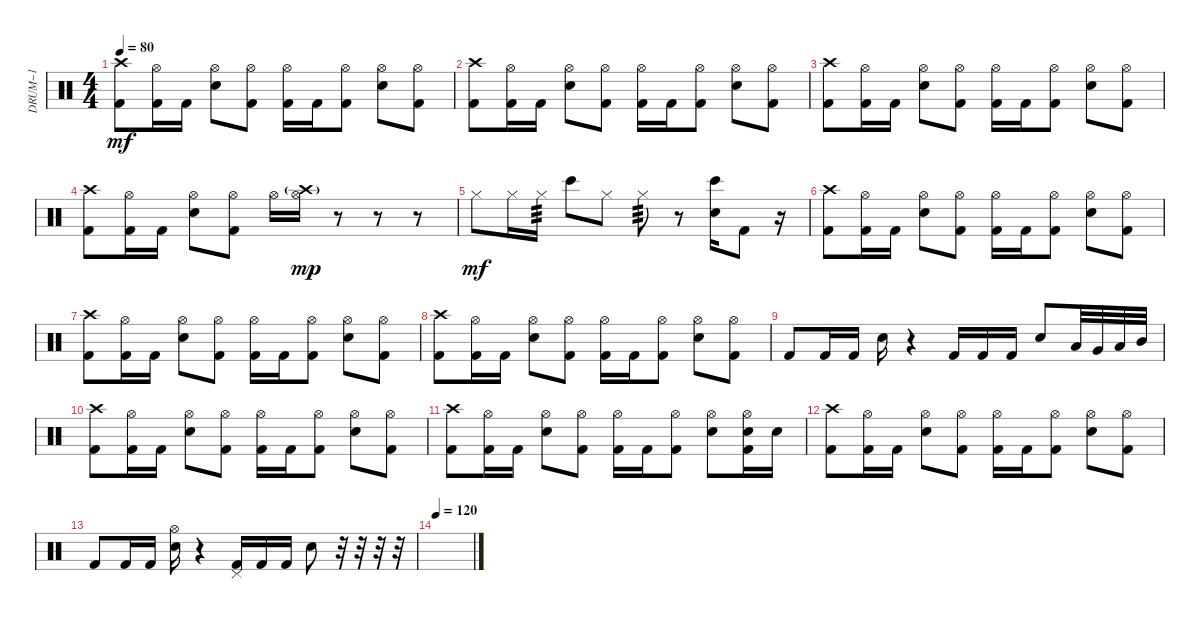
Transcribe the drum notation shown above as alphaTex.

\track ("DRUM~1" "DRUM~1") {instrument percussion}
\staff {score}
\articulation defaults
\ts (4 4)
\tempo 80
\clef neutral
\ks c
("Crash high (hit)" "Kick (hit) 2").8{dy mf} ("Hi-Hat (open)" "Kick (hit) 2").16 "Kick (hit) 2".16 ("Hi-Hat (open)" "Snare (hit) 2").8 ("Hi-Hat (open)" "Kick (hit) 2").8 ("Hi-Hat (open)" "Kick (hit) 2").16 "Kick (hit) 2".16 ("Hi-Hat (open)" "Kick (hit) 2").8 ("Hi-Hat (open)" "Snare (hit) 2").8 ("Hi-Hat (open)" "Kick (hit) 2").8 |
("Crash high (hit)" "Kick (hit) 2").8 ("Hi-Hat (open)" "Kick (hit) 2").16 "Kick (hit) 2".16 ("Hi-Hat (open)" "Snare (hit) 2").8 ("Hi-Hat (open)" "Kick (hit) 2").8 ("Hi-Hat (open)" "Kick (hit) 2").16 "Kick (hit) 2".16 ("Hi-Hat (open)" "Kick (hit) 2").8 ("Hi-Hat (open)" "Snare (hit) 2").8 ("Hi-Hat (open)" "Kick (hit) 2").8 |
("Crash high (hit)" "Kick (hit) 2").8 ("Hi-Hat (open)" "Kick (hit) 2").16 "Kick (hit) 2".16 ("Hi-Hat (open)" "Snare (hit) 2").8 ("Hi-Hat (open)" "Kick (hit) 2").8 ("Hi-Hat (open)" "Kick (hit) 2").16 "Kick (hit) 2".16 ("Hi-Hat (open)" "Kick (hit) 2").8 ("Hi-Hat (open)" "Snare (hit) 2").8 ("Hi-Hat (open)" "Kick (hit) 2").8 |
("Crash high (hit)" "Kick (hit) 2").8 ("Hi-Hat (open)" "Kick (hit) 2").16 "Kick (hit) 2".16 ("Hi-Hat (open)" "Snare (hit) 2").8 ("Hi-Hat (open)" "Kick (hit) 2").8 "Hi-Hat (open)".16 ("Hi-Hat (open)" "Crash high (hit)"{g}).16{dy mp} r.8 r.8 r.8 |
"Hi-Hat (closed)".8{dy mf} "Hi-Hat (closed)".16 "Hi-Hat (closed)".16{tp 3} "Bongo High (hit)".8 "Hi-Hat (closed)".8 "Hi-Hat (closed)".8{tp 3} r.8 ("Snare (hit) 2" "Bongo High (hit)").16 "Kick (hit) 2".8 r.16 |
("Crash high (hit)" "Kick (hit) 2").8 ("Hi-Hat (open)" "Kick (hit) 2").16 "Kick (hit) 2".16 ("Hi-Hat (open)" "Snare (hit) 2").8 ("Hi-Hat (open)" "Kick (hit) 2").8 ("Hi-Hat (open)" "Kick (hit) 2").16 "Kick (hit) 2".16 ("Hi-Hat (open)" "Kick (hit) 2").8 ("Hi-Hat (open)" "Snare (hit) 2").8 ("Hi-Hat (open)" "Kick (hit) 2").8 |
("Crash high (hit)" "Kick (hit) 2").8 ("Hi-Hat (open)" "Kick (hit) 2").16 "Kick (hit) 2".16 ("Hi-Hat (open)" "Snare (hit) 2").8 ("Hi-Hat (open)" "Kick (hit) 2").8 ("Hi-Hat (open)" "Kick (hit) 2").16 "Kick (hit) 2".16 ("Hi-Hat (open)" "Kick (hit) 2").8 ("Hi-Hat (open)" "Snare (hit) 2").8 ("Hi-Hat (open)" "Kick (hit) 2").8 |
("Crash high (hit)" "Kick (hit) 2").8 ("Hi-Hat (open)" "Kick (hit) 2").16 "Kick (hit) 2".16 ("Hi-Hat (open)" "Snare (hit) 2").8 ("Hi-Hat (open)" "Kick (hit) 2").8 ("Hi-Hat (open)" "Kick (hit) 2").16 "Kick (hit) 2".16 ("Hi-Hat (open)" "Kick (hit) 2").8 ("Hi-Hat (open)" "Snare (hit) 2").8 ("Hi-Hat (open)" "Kick (hit) 2").8 |
"Kick (hit) 2".8 "Kick (hit) 2".16 "Kick (hit) 2".16 "Snare (hit) 2".16 r.4 "Kick (hit) 2".16 "Kick (hit) 2".16 "Kick (hit) 2".16 "Snare (hit) 2".8 "Low Floor Tom (hit)".32 "Very Low Tom (hit)".32 "Low Tom (hit)".32 "Mid Tom (hit)".32 |
("Crash high (hit)" "Kick (hit) 2").8 ("Hi-Hat (open)" "Kick (hit) 2").16 "Kick (hit) 2".16 ("Hi-Hat (open)" "Snare (hit) 2").8 ("Hi-Hat (open)" "Kick (hit) 2").8 ("Hi-Hat (open)" "Kick (hit) 2").16 "Kick (hit) 2".16 ("Hi-Hat (open)" "Kick (hit) 2").8 ("Hi-Hat (open)" "Snare (hit) 2").8 ("Hi-Hat (open)" "Kick (hit) 2").8 |
("Crash high (hit)" "Kick (hit) 2").8 ("Hi-Hat (open)" "Kick (hit) 2").16 "Kick (hit) 2".16 ("Hi-Hat (open)" "Snare (hit) 2").8 ("Hi-Hat (open)" "Kick (hit) 2").8 ("Hi-Hat (open)" "Kick (hit) 2").16 "Kick (hit) 2".16 ("Hi-Hat (open)" "Kick (hit) 2").8 ("Hi-Hat (open)" "Snare (hit) 2").8 ("Hi-Hat (open)" "Snare (hit) 2" "Kick (hit) 2").16 "Snare (hit) 2".16 |
("Crash high (hit)" "Kick (hit) 2").8 ("Hi-Hat (open)" "Kick (hit) 2").16 "Kick (hit) 2".16 ("Hi-Hat (open)" "Snare (hit) 2").8 ("Hi-Hat (open)" "Kick (hit) 2").8 ("Hi-Hat (open)" "Kick (hit) 2").16 "Kick (hit) 2".16 ("Hi-Hat (open)" "Kick (hit) 2").8 ("Hi-Hat (open)" "Snare (hit) 2").8 ("Hi-Hat (open)" "Kick (hit) 2").8 |
"Kick (hit) 2".8 "Kick (hit) 2".16 "Kick (hit) 2".16 ("Snare (hit) 2" "Hi-Hat (open)").16 r.4 ("Kick (hit) 2" "Pedal Hi-Hat (hit)").16 "Kick (hit) 2".16 "Kick (hit) 2".16 "Snare (hit) 2".8 r.32 r.32 r.32 r.32 |
\tempo 120
